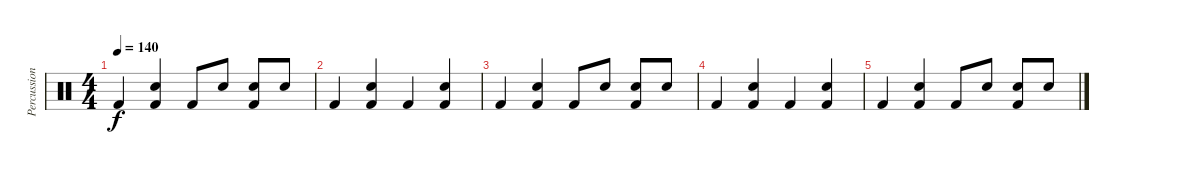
\track ("Percussion" "Percussion") {instrument percussion}
\staff {score}
\articulation defaults
\ts (4 4)
\tempo 140
\clef neutral
\ks c "Kick (hit) 2".4{dy f}
("Hand Clap (hit)" "Kick (hit) 2").4 "Kick (hit) 2".8 "Hand Clap (hit)".8 ("Hand Clap (hit)" "Kick (hit) 2").8 "Hand Clap (hit)".8 |
"Kick (hit) 2".4 ("Hand Clap (hit)" "Kick (hit) 2").4 "Kick (hit) 2".4 ("Hand Clap (hit)" "Kick (hit) 2").4 |
"Kick (hit) 2".4 ("Hand Clap (hit)" "Kick (hit) 2").4 "Kick (hit) 2".8 "Hand Clap (hit)".8 ("Hand Clap (hit)" "Kick (hit) 2").8 "Hand Clap (hit)".8 |
"Kick (hit) 2".4 ("Hand Clap (hit)" "Kick (hit) 2").4 "Kick (hit) 2".4 ("Hand Clap (hit)" "Kick (hit) 2").4 |
"Kick (hit) 2".4 ("Hand Clap (hit)" "Kick (hit) 2").4 "Kick (hit) 2".8 "Hand Clap (hit)".8 ("Hand Clap (hit)" "Kick (hit) 2").8 "Hand Clap (hit)".8
